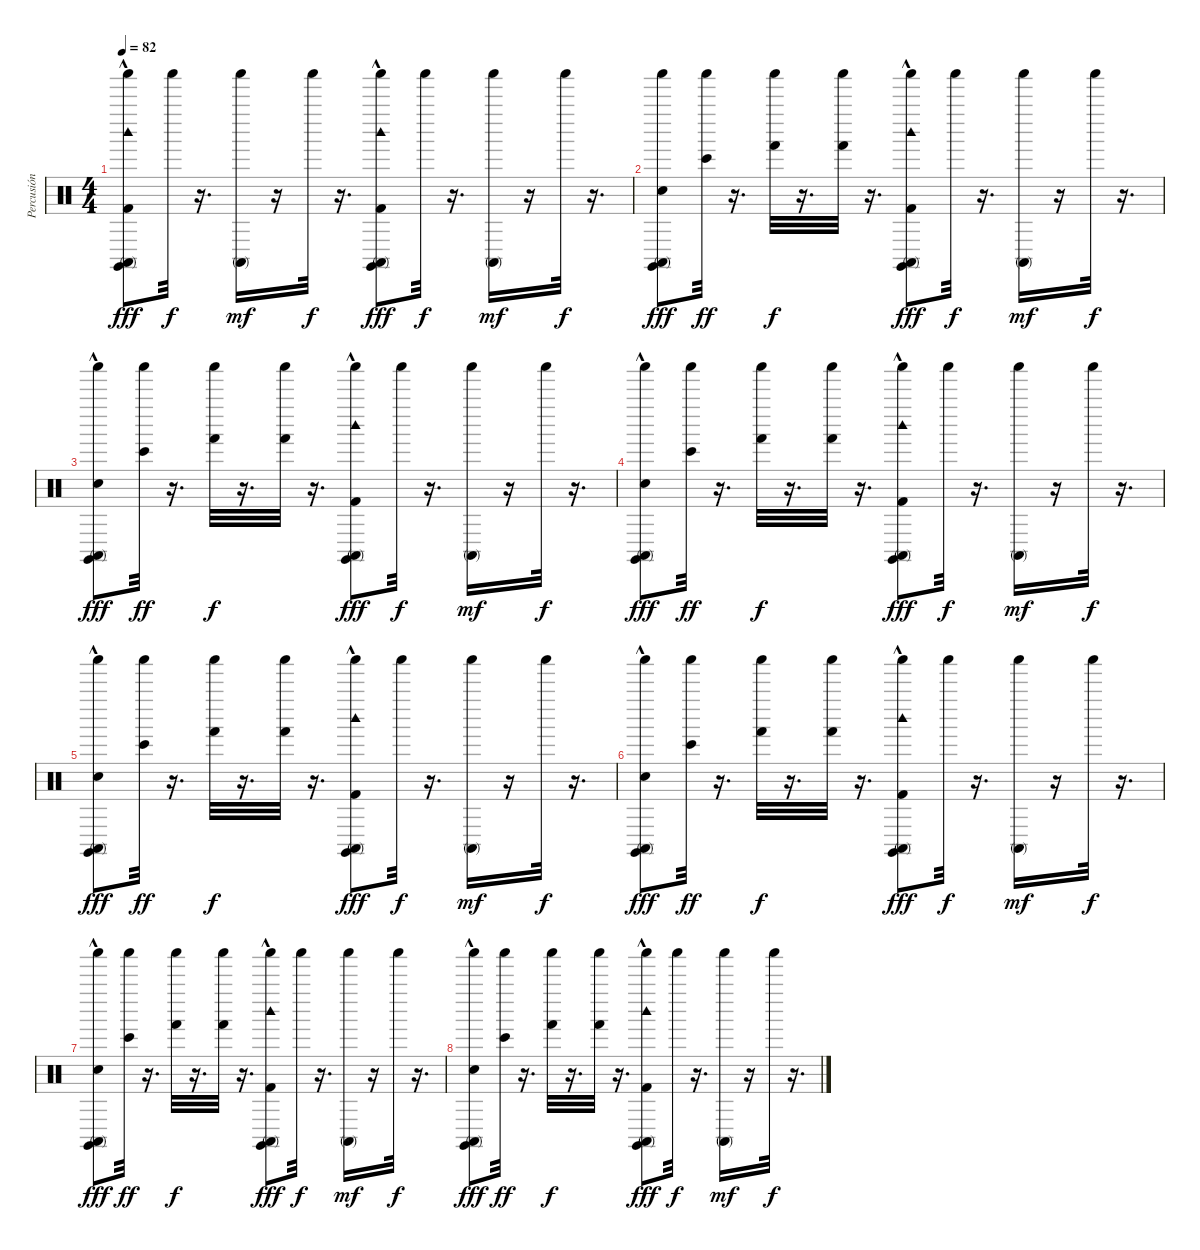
\track ("Percusión" "Percusión") {instrument percussion}
\staff {score}
\articulation defaults
\ts (4 4)
\tempo 82
\clef neutral
\ks c
("Woodblock high (hit)" "Conga high (mute)" "Shaker (hit)" "Claves (hit)" "Kick (hit) 2"{hac}).8{dy fff} "Shaker (hit)".32{dy f} r.16{d} ("Shaker (hit)" "Conga high (mute)").16{dy mf} r.16 "Shaker (hit)".32{dy f} r.16{d} ("Woodblock high (hit)" "Conga high (mute)" "Shaker (hit)" "Claves (hit)" "Kick (hit) 2"{hac}).8{dy fff} "Shaker (hit)".32{dy f} r.16{d} ("Shaker (hit)" "Conga high (mute)").16{dy mf} r.16 "Shaker (hit)".32{dy f} r.16{d} |
("Claves (hit)" "Shaker (hit)" "Conga high (mute)" "Electric Snare (hit)").8{dy fff} ("Shaker (hit)" "Bongo High (hit)").32{dy ff} r.16{d} ("Shaker (hit)" "Hand (hit)").32{dy f} r.16{d} ("Shaker (hit)" "Hand (hit)").32 r.16{d} ("Woodblock high (hit)" "Conga high (mute)" "Shaker (hit)" "Claves (hit)" "Kick (hit) 2"{hac}).8{dy fff} "Shaker (hit)".32{dy f} r.16{d} ("Shaker (hit)" "Conga high (mute)").16{dy mf} r.16 "Shaker (hit)".32{dy f} r.16{d} |
("Claves (hit)" "Shaker (hit)" "Conga high (mute)" "Electric Snare (hit)"{hac}).8{dy fff} ("Shaker (hit)" "Bongo High (hit)").32{dy ff} r.16{d} ("Shaker (hit)" "Hand (hit)").32{dy f} r.16{d} ("Shaker (hit)" "Hand (hit)").32 r.16{d} ("Woodblock high (hit)" "Conga high (mute)" "Shaker (hit)" "Claves (hit)" "Kick (hit) 2"{hac}).8{dy fff} "Shaker (hit)".32{dy f} r.16{d} ("Shaker (hit)" "Conga high (mute)").16{dy mf} r.16 "Shaker (hit)".32{dy f} r.16{d} |
("Claves (hit)" "Shaker (hit)" "Conga high (mute)" "Electric Snare (hit)"{hac}).8{dy fff} ("Shaker (hit)" "Bongo High (hit)").32{dy ff} r.16{d} ("Shaker (hit)" "Hand (hit)").32{dy f} r.16{d} ("Shaker (hit)" "Hand (hit)").32 r.16{d} ("Woodblock high (hit)" "Conga high (mute)" "Shaker (hit)" "Claves (hit)" "Kick (hit) 2"{hac}).8{dy fff} "Shaker (hit)".32{dy f} r.16{d} ("Shaker (hit)" "Conga high (mute)").16{dy mf} r.16 "Shaker (hit)".32{dy f} r.16{d} |
("Claves (hit)" "Shaker (hit)" "Conga high (mute)" "Electric Snare (hit)"{hac}).8{dy fff} ("Shaker (hit)" "Bongo High (hit)").32{dy ff} r.16{d} ("Shaker (hit)" "Hand (hit)").32{dy f} r.16{d} ("Shaker (hit)" "Hand (hit)").32 r.16{d} ("Woodblock high (hit)" "Conga high (mute)" "Shaker (hit)" "Claves (hit)" "Kick (hit) 2"{hac}).8{dy fff} "Shaker (hit)".32{dy f} r.16{d} ("Shaker (hit)" "Conga high (mute)").16{dy mf} r.16 "Shaker (hit)".32{dy f} r.16{d} |
("Claves (hit)" "Shaker (hit)" "Conga high (mute)" "Electric Snare (hit)"{hac}).8{dy fff} ("Shaker (hit)" "Bongo High (hit)").32{dy ff} r.16{d} ("Shaker (hit)" "Hand (hit)").32{dy f} r.16{d} ("Shaker (hit)" "Hand (hit)").32 r.16{d} ("Woodblock high (hit)" "Conga high (mute)" "Shaker (hit)" "Claves (hit)" "Kick (hit) 2"{hac}).8{dy fff} "Shaker (hit)".32{dy f} r.16{d} ("Shaker (hit)" "Conga high (mute)").16{dy mf} r.16 "Shaker (hit)".32{dy f} r.16{d} |
("Claves (hit)" "Shaker (hit)" "Conga high (mute)" "Electric Snare (hit)"{hac}).8{dy fff} ("Shaker (hit)" "Bongo High (hit)").32{dy ff} r.16{d} ("Shaker (hit)" "Hand (hit)").32{dy f} r.16{d} ("Shaker (hit)" "Hand (hit)").32 r.16{d} ("Woodblock high (hit)" "Conga high (mute)" "Shaker (hit)" "Claves (hit)" "Kick (hit) 2"{hac}).8{dy fff} "Shaker (hit)".32{dy f} r.16{d} ("Shaker (hit)" "Conga high (mute)").16{dy mf} r.16 "Shaker (hit)".32{dy f} r.16{d} |
("Claves (hit)" "Shaker (hit)" "Conga high (mute)" "Electric Snare (hit)"{hac}).8{dy fff} ("Shaker (hit)" "Bongo High (hit)").32{dy ff} r.16{d} ("Shaker (hit)" "Hand (hit)").32{dy f} r.16{d} ("Shaker (hit)" "Hand (hit)").32 r.16{d} ("Woodblock high (hit)" "Conga high (mute)" "Shaker (hit)" "Claves (hit)" "Kick (hit) 2"{hac}).8{dy fff} "Shaker (hit)".32{dy f} r.16{d} ("Shaker (hit)" "Conga high (mute)").16{dy mf} r.16 "Shaker (hit)".32{dy f} r.16{d}
